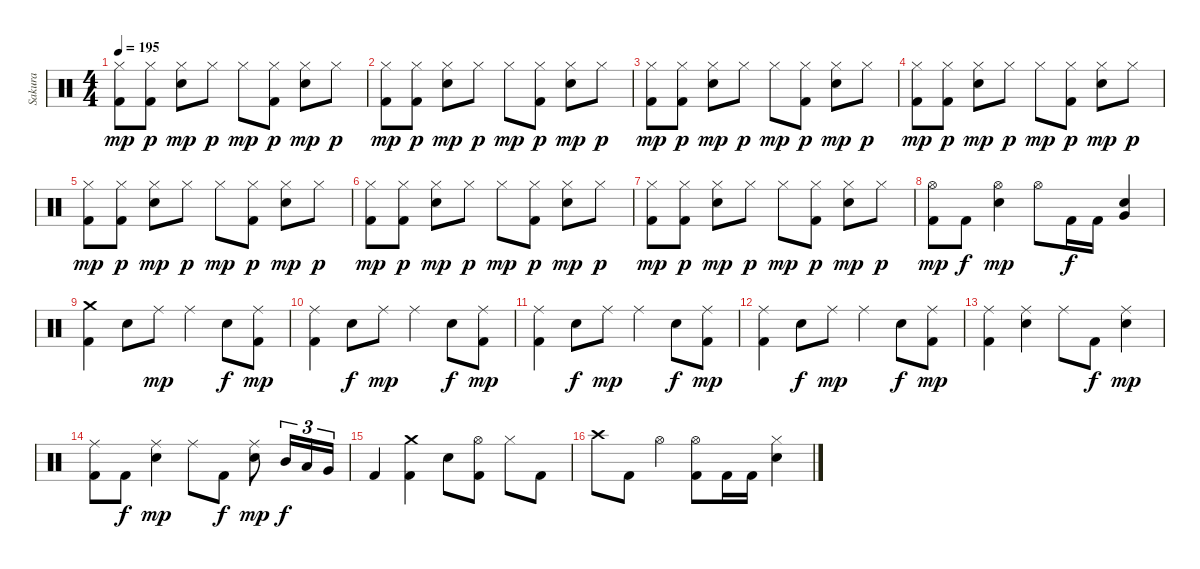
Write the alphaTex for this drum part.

\track ("Sakura" "Sakura") {instrument percussion}
\staff {score}
\articulation defaults
\ts (4 4)
\tempo 195
\clef neutral
\ks c
("Hi-Hat (closed)" "Kick (hit) 2").8{dy mp} ("Hi-Hat (closed)" "Kick (hit) 2").8{dy p} ("Hi-Hat (closed)" "Snare (hit) 2").8{dy mp} "Hi-Hat (closed)".8{dy p} "Hi-Hat (closed)".8{dy mp} ("Hi-Hat (closed)" "Kick (hit) 2").8{dy p} ("Hi-Hat (closed)" "Snare (hit) 2").8{dy mp} "Hi-Hat (closed)".8{dy p} |
("Hi-Hat (closed)" "Kick (hit) 2").8{dy mp} ("Hi-Hat (closed)" "Kick (hit) 2").8{dy p} ("Hi-Hat (closed)" "Snare (hit) 2").8{dy mp} "Hi-Hat (closed)".8{dy p} "Hi-Hat (closed)".8{dy mp} ("Hi-Hat (closed)" "Kick (hit) 2").8{dy p} ("Hi-Hat (closed)" "Snare (hit) 2").8{dy mp} "Hi-Hat (closed)".8{dy p} |
("Hi-Hat (closed)" "Kick (hit) 2").8{dy mp} ("Hi-Hat (closed)" "Kick (hit) 2").8{dy p} ("Hi-Hat (closed)" "Snare (hit) 2").8{dy mp} "Hi-Hat (closed)".8{dy p} "Hi-Hat (closed)".8{dy mp} ("Hi-Hat (closed)" "Kick (hit) 2").8{dy p} ("Hi-Hat (closed)" "Snare (hit) 2").8{dy mp} "Hi-Hat (closed)".8{dy p} |
("Hi-Hat (closed)" "Kick (hit) 2").8{dy mp} ("Hi-Hat (closed)" "Kick (hit) 2").8{dy p} ("Hi-Hat (closed)" "Snare (hit) 2").8{dy mp} "Hi-Hat (closed)".8{dy p} "Hi-Hat (closed)".8{dy mp} ("Hi-Hat (closed)" "Kick (hit) 2").8{dy p} ("Hi-Hat (closed)" "Snare (hit) 2").8{dy mp} "Hi-Hat (closed)".8{dy p} |
("Hi-Hat (closed)" "Kick (hit) 2").8{dy mp} ("Hi-Hat (closed)" "Kick (hit) 2").8{dy p} ("Hi-Hat (closed)" "Snare (hit) 2").8{dy mp} "Hi-Hat (closed)".8{dy p} "Hi-Hat (closed)".8{dy mp} ("Hi-Hat (closed)" "Kick (hit) 2").8{dy p} ("Hi-Hat (closed)" "Snare (hit) 2").8{dy mp} "Hi-Hat (closed)".8{dy p} |
("Hi-Hat (closed)" "Kick (hit) 2").8{dy mp} ("Hi-Hat (closed)" "Kick (hit) 2").8{dy p} ("Hi-Hat (closed)" "Snare (hit) 2").8{dy mp} "Hi-Hat (closed)".8{dy p} "Hi-Hat (closed)".8{dy mp} ("Hi-Hat (closed)" "Kick (hit) 2").8{dy p} ("Hi-Hat (closed)" "Snare (hit) 2").8{dy mp} "Hi-Hat (closed)".8{dy p} |
("Hi-Hat (closed)" "Kick (hit) 2").8{dy mp} ("Hi-Hat (closed)" "Kick (hit) 2").8{dy p} ("Hi-Hat (closed)" "Snare (hit) 2").8{dy mp} "Hi-Hat (closed)".8{dy p} "Hi-Hat (closed)".8{dy mp} ("Hi-Hat (closed)" "Kick (hit) 2").8{dy p} ("Hi-Hat (closed)" "Snare (hit) 2").8{dy mp} "Hi-Hat (closed)".8{dy p} |
("Hi-Hat (open)" "Kick (hit) 2").8{dy mp} "Kick (hit) 2".8{dy f} ("Hi-Hat (open)" "Snare (hit) 2").4{dy mp} "Hi-Hat (open)".8 "Kick (hit) 2".16{dy f} "Kick (hit) 2".16 ("Snare (hit) 2" "Very Low Tom (hit)").4 |
("Crash medium (hit)" "Kick (hit) 2").4 "Snare (hit) 2".8 "Ride (middle)".8{dy mp} "Ride (middle)".4 "Snare (hit) 2".8{dy f} ("Ride (middle)" "Kick (hit) 2").8{dy mp} |
("Ride (middle)" "Kick (hit) 2").4 "Snare (hit) 2".8{dy f} "Ride (middle)".8{dy mp} "Ride (middle)".4 "Snare (hit) 2".8{dy f} ("Ride (middle)" "Kick (hit) 2").8{dy mp} |
("Ride (middle)" "Kick (hit) 2").4 "Snare (hit) 2".8{dy f} "Ride (middle)".8{dy mp} "Ride (middle)".4 "Snare (hit) 2".8{dy f} ("Ride (middle)" "Kick (hit) 2").8{dy mp} |
("Ride (middle)" "Kick (hit) 2").4 "Snare (hit) 2".8{dy f} "Ride (middle)".8{dy mp} "Ride (middle)".4 "Snare (hit) 2".8{dy f} ("Ride (middle)" "Kick (hit) 2").8{dy mp} |
("Ride (middle)" "Kick (hit) 2").4 ("Ride (middle)" "Snare (hit) 2").4 "Ride (middle)".8 "Kick (hit) 2".8{dy f} ("Ride (middle)" "Snare (hit) 2").4{dy mp} |
("Ride (middle)" "Kick (hit) 2").8 "Kick (hit) 2".8{dy f} ("Ride (middle)" "Snare (hit) 2").4{dy mp} "Ride (middle)".8 "Kick (hit) 2".8{dy f} ("Ride (middle)" "Snare (hit) 2").8{dy mp} "Mid Tom (hit)".16{tu (3 2) dy f} "Low Tom (hit)".16{tu (3 2)} "Very Low Tom (hit)".16{tu (3 2)} |
"Kick (hit) 2".4 ("Crash medium (hit)" "Kick (hit) 2").4 "Snare (hit) 2".8 ("Hi-Hat (open)" "Kick (hit) 2").8 "Hi-Hat (closed)".8 "Kick (hit) 2".8 |
"Crash high (hit)".8 "Kick (hit) 2".8 "Hi-Hat (open)".4 ("Hi-Hat (open)" "Kick (hit) 2").8 "Kick (hit) 2".16 "Kick (hit) 2".16 ("Hi-Hat (closed)" "Snare (hit) 2").4
